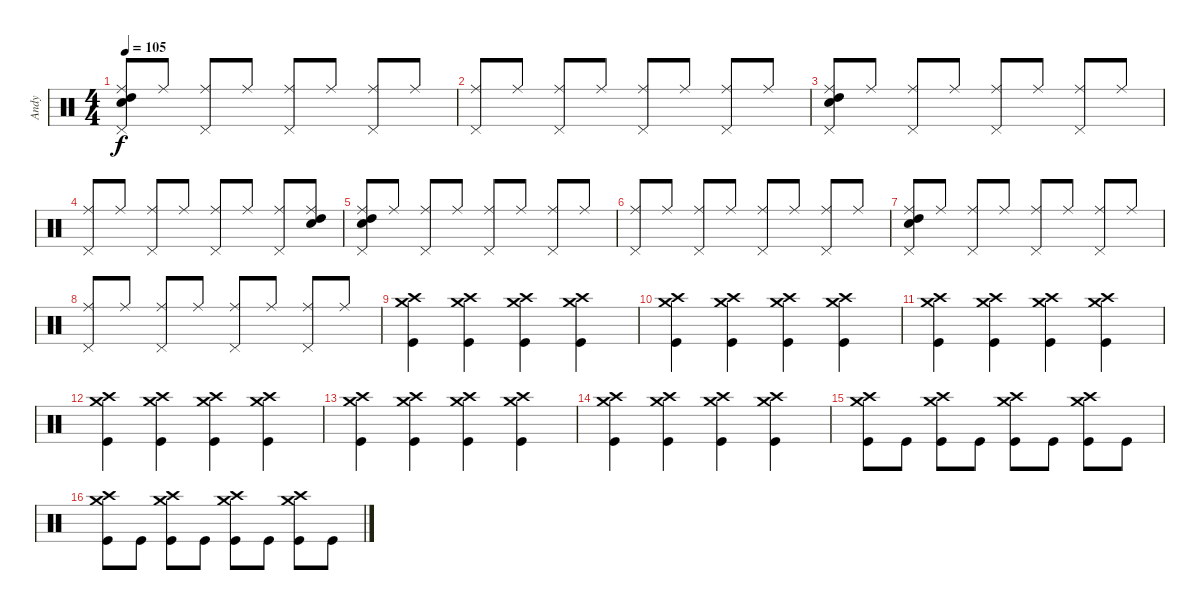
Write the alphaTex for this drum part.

\track ("Andy" "Andy") {instrument percussion}
\staff {score}
\articulation defaults
\ts (4 4)
\tempo 105
\clef neutral
\ks c
("Snare (hit) 2" "High Tom (hit)" "Ride (middle)" "Pedal Hi-Hat (hit)").8{dy f} "Ride (middle)".8 ("Ride (middle)" "Pedal Hi-Hat (hit)").8 "Ride (middle)".8 ("Ride (middle)" "Pedal Hi-Hat (hit)").8 "Ride (middle)".8 ("Ride (middle)" "Pedal Hi-Hat (hit)").8 "Ride (middle)".8 |
("Ride (middle)" "Pedal Hi-Hat (hit)").8 "Ride (middle)".8 ("Ride (middle)" "Pedal Hi-Hat (hit)").8 "Ride (middle)".8 ("Ride (middle)" "Pedal Hi-Hat (hit)").8 "Ride (middle)".8 ("Ride (middle)" "Pedal Hi-Hat (hit)").8 "Ride (middle)".8 |
("Snare (hit) 2" "High Tom (hit)" "Ride (middle)" "Pedal Hi-Hat (hit)").8 "Ride (middle)".8 ("Ride (middle)" "Pedal Hi-Hat (hit)").8 "Ride (middle)".8 ("Ride (middle)" "Pedal Hi-Hat (hit)").8 "Ride (middle)".8 ("Ride (middle)" "Pedal Hi-Hat (hit)").8 "Ride (middle)".8 |
("Ride (middle)" "Pedal Hi-Hat (hit)").8 "Ride (middle)".8 ("Ride (middle)" "Pedal Hi-Hat (hit)").8 "Ride (middle)".8 ("Ride (middle)" "Pedal Hi-Hat (hit)").8 "Ride (middle)".8 ("Ride (middle)" "Pedal Hi-Hat (hit)").8 ("Ride (middle)" "Snare (hit) 2" "High Tom (hit)").8 |
("Snare (hit) 2" "High Tom (hit)" "Ride (middle)" "Pedal Hi-Hat (hit)").8 "Ride (middle)".8 ("Ride (middle)" "Pedal Hi-Hat (hit)").8 "Ride (middle)".8 ("Ride (middle)" "Pedal Hi-Hat (hit)").8 "Ride (middle)".8 ("Ride (middle)" "Pedal Hi-Hat (hit)").8 "Ride (middle)".8 |
("Ride (middle)" "Pedal Hi-Hat (hit)").8 "Ride (middle)".8 ("Ride (middle)" "Pedal Hi-Hat (hit)").8 "Ride (middle)".8 ("Ride (middle)" "Pedal Hi-Hat (hit)").8 "Ride (middle)".8 ("Ride (middle)" "Pedal Hi-Hat (hit)").8 "Ride (middle)".8 |
("Snare (hit) 2" "High Tom (hit)" "Ride (middle)" "Pedal Hi-Hat (hit)").8 "Ride (middle)".8 ("Ride (middle)" "Pedal Hi-Hat (hit)").8 "Ride (middle)".8 ("Ride (middle)" "Pedal Hi-Hat (hit)").8 "Ride (middle)".8 ("Ride (middle)" "Pedal Hi-Hat (hit)").8 "Ride (middle)".8 |
("Ride (middle)" "Pedal Hi-Hat (hit)").8 "Ride (middle)".8 ("Ride (middle)" "Pedal Hi-Hat (hit)").8 "Ride (middle)".8 ("Ride (middle)" "Pedal Hi-Hat (hit)").8 "Ride (middle)".8 ("Ride (middle)" "Pedal Hi-Hat (hit)").8 "Ride (middle)".8 |
("Kick (hit)" "Crash high (hit)" "Crash medium (hit)").4 ("Kick (hit)" "Crash high (hit)" "Crash medium (hit)").4 ("Kick (hit)" "Crash high (hit)" "Crash medium (hit)").4 ("Kick (hit)" "Crash high (hit)" "Crash medium (hit)").4 |
("Kick (hit)" "Crash high (hit)" "Crash medium (hit)").4 ("Kick (hit)" "Crash high (hit)" "Crash medium (hit)").4 ("Kick (hit)" "Crash high (hit)" "Crash medium (hit)").4 ("Kick (hit)" "Crash high (hit)" "Crash medium (hit)").4 |
("Kick (hit)" "Crash high (hit)" "Crash medium (hit)").4 ("Kick (hit)" "Crash high (hit)" "Crash medium (hit)").4 ("Kick (hit)" "Crash high (hit)" "Crash medium (hit)").4 ("Kick (hit)" "Crash high (hit)" "Crash medium (hit)").4 |
("Kick (hit)" "Crash high (hit)" "Crash medium (hit)").4 ("Kick (hit)" "Crash high (hit)" "Crash medium (hit)").4 ("Kick (hit)" "Crash high (hit)" "Crash medium (hit)").4 ("Kick (hit)" "Crash high (hit)" "Crash medium (hit)").4 |
("Kick (hit)" "Crash high (hit)" "Crash medium (hit)").4 ("Kick (hit)" "Crash high (hit)" "Crash medium (hit)").4 ("Kick (hit)" "Crash high (hit)" "Crash medium (hit)").4 ("Kick (hit)" "Crash high (hit)" "Crash medium (hit)").4 |
("Kick (hit)" "Crash high (hit)" "Crash medium (hit)").4 ("Kick (hit)" "Crash high (hit)" "Crash medium (hit)").4 ("Kick (hit)" "Crash high (hit)" "Crash medium (hit)").4 ("Kick (hit)" "Crash high (hit)" "Crash medium (hit)").4 |
("Kick (hit)" "Crash high (hit)" "Crash medium (hit)").8 "Kick (hit)".8 ("Kick (hit)" "Crash high (hit)" "Crash medium (hit)").8 "Kick (hit)".8 ("Kick (hit)" "Crash high (hit)" "Crash medium (hit)").8 "Kick (hit)".8 ("Kick (hit)" "Crash high (hit)" "Crash medium (hit)").8 "Kick (hit)".8 |
("Kick (hit)" "Crash high (hit)" "Crash medium (hit)").8 "Kick (hit)".8 ("Kick (hit)" "Crash high (hit)" "Crash medium (hit)").8 "Kick (hit)".8 ("Kick (hit)" "Crash high (hit)" "Crash medium (hit)").8 "Kick (hit)".8 ("Kick (hit)" "Crash high (hit)" "Crash medium (hit)").8 "Kick (hit)".8
